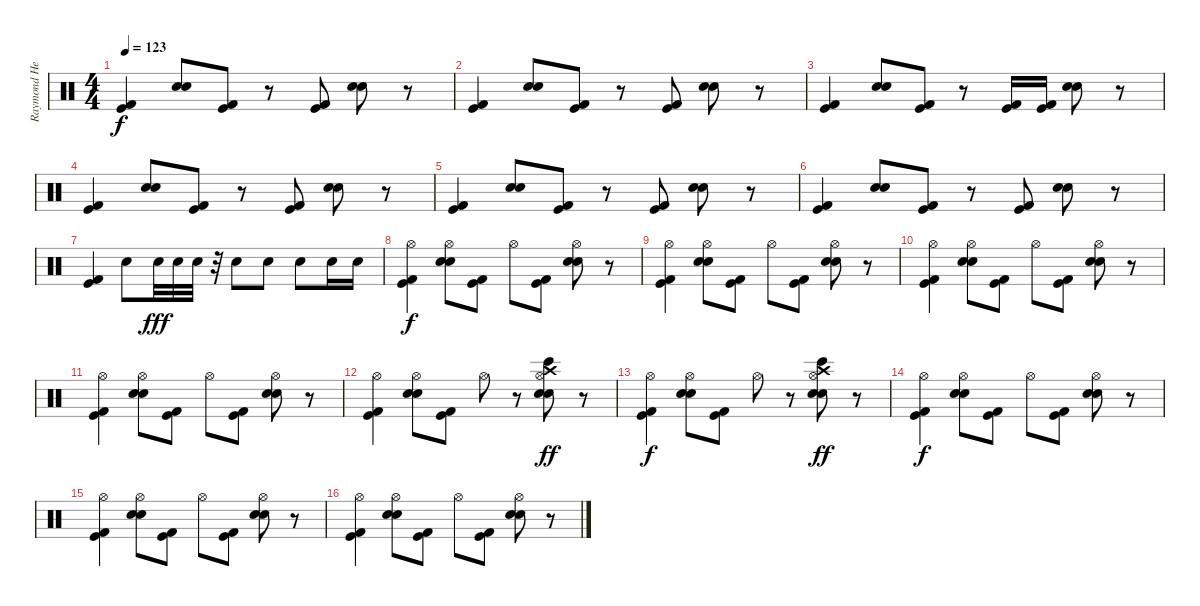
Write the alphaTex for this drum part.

\track ("Raymond Herrera" "Raymond He") {instrument percussion}
\staff {score}
\articulation defaults
\ts (4 4)
\tempo 123
\clef neutral
\ks c
("Kick (hit)" "Kick (hit) 2").4{dy f} ("Electric Snare (hit)" "Electric Snare (hit)").8 ("Kick (hit)" "Kick (hit) 2").8 r.8 ("Kick (hit) 2" "Kick (hit)").8 ("Electric Snare (hit)" "Electric Snare (hit)").8 r.8 |
("Kick (hit)" "Kick (hit) 2").4 ("Electric Snare (hit)" "Electric Snare (hit)").8 ("Kick (hit)" "Kick (hit) 2").8 r.8 ("Kick (hit) 2" "Kick (hit)").8 ("Electric Snare (hit)" "Electric Snare (hit)").8 r.8 |
("Kick (hit)" "Kick (hit) 2").4 ("Electric Snare (hit)" "Electric Snare (hit)").8 ("Kick (hit)" "Kick (hit) 2").8 r.8 ("Kick (hit) 2" "Kick (hit)").16 ("Kick (hit) 2" "Kick (hit)").16 ("Electric Snare (hit)" "Electric Snare (hit)").8 r.8 |
("Kick (hit)" "Kick (hit) 2").4 ("Electric Snare (hit)" "Electric Snare (hit)").8 ("Kick (hit)" "Kick (hit) 2").8 r.8 ("Kick (hit) 2" "Kick (hit)").8 ("Electric Snare (hit)" "Electric Snare (hit)").8 r.8 |
("Kick (hit)" "Kick (hit) 2").4 ("Electric Snare (hit)" "Electric Snare (hit)").8 ("Kick (hit)" "Kick (hit) 2").8 r.8 ("Kick (hit) 2" "Kick (hit)").8 ("Electric Snare (hit)" "Electric Snare (hit)").8 r.8 |
("Kick (hit)" "Kick (hit) 2").4 ("Electric Snare (hit)" "Electric Snare (hit)").8 ("Kick (hit)" "Kick (hit) 2").8 r.8 ("Kick (hit) 2" "Kick (hit)").8 ("Electric Snare (hit)" "Electric Snare (hit)").8 r.8 |
("Kick (hit)" "Kick (hit) 2").4 "Electric Snare (hit)".8 "Electric Snare (hit)".32{dy fff} "Electric Snare (hit)".32 "Electric Snare (hit)".32 r.32 "Electric Snare (hit)".8 "Electric Snare (hit)".8 "Electric Snare (hit)".8 "Electric Snare (hit)".16 "Electric Snare (hit)".16 |
("Hi-Hat (open)" "Kick (hit)" "Kick (hit) 2").4{dy f} ("Hi-Hat (open)" "Electric Snare (hit)" "Electric Snare (hit)").8 ("Kick (hit)" "Kick (hit) 2").8 "Hi-Hat (open)".8 ("Kick (hit) 2" "Kick (hit)").8 ("Hi-Hat (open)" "Electric Snare (hit)" "Electric Snare (hit)").8 r.8 |
("Hi-Hat (open)" "Kick (hit)" "Kick (hit) 2").4 ("Hi-Hat (open)" "Electric Snare (hit)" "Electric Snare (hit)").8 ("Kick (hit)" "Kick (hit) 2").8 "Hi-Hat (open)".8 ("Kick (hit) 2" "Kick (hit)").8 ("Hi-Hat (open)" "Electric Snare (hit)" "Electric Snare (hit)").8 r.8 |
("Hi-Hat (open)" "Kick (hit)" "Kick (hit) 2").4 ("Hi-Hat (open)" "Electric Snare (hit)" "Electric Snare (hit)").8 ("Kick (hit)" "Kick (hit) 2").8 "Hi-Hat (open)".8 ("Kick (hit) 2" "Kick (hit)").8 ("Hi-Hat (open)" "Electric Snare (hit)" "Electric Snare (hit)").8 r.8 |
("Hi-Hat (open)" "Kick (hit)" "Kick (hit) 2").4 ("Hi-Hat (open)" "Electric Snare (hit)" "Electric Snare (hit)").8 ("Kick (hit)" "Kick (hit) 2").8 "Hi-Hat (open)".8 ("Kick (hit) 2" "Kick (hit)").8 ("Hi-Hat (open)" "Electric Snare (hit)" "Electric Snare (hit)").8 r.8 |
("Hi-Hat (open)" "Kick (hit)" "Kick (hit) 2").4 ("Hi-Hat (open)" "Electric Snare (hit)" "Electric Snare (hit)").8 ("Kick (hit)" "Kick (hit) 2").8 "Hi-Hat (open)".8 r.8 ("Hi-Hat (open)" "Crash high (hit)" "Electric Snare (hit)" "Electric Snare (hit)" "Bongo High (hit)").8{dy ff} r.8 |
("Hi-Hat (open)" "Kick (hit)" "Kick (hit) 2").4{dy f} ("Hi-Hat (open)" "Electric Snare (hit)" "Electric Snare (hit)").8 ("Kick (hit)" "Kick (hit) 2").8 "Hi-Hat (open)".8 r.8 ("Hi-Hat (open)" "Crash high (hit)" "Electric Snare (hit)" "Electric Snare (hit)" "Bongo High (hit)").8{dy ff} r.8 |
("Hi-Hat (open)" "Kick (hit)" "Kick (hit) 2").4{dy f} ("Hi-Hat (open)" "Electric Snare (hit)" "Electric Snare (hit)").8 ("Kick (hit)" "Kick (hit) 2").8 "Hi-Hat (open)".8 ("Kick (hit) 2" "Kick (hit)").8 ("Hi-Hat (open)" "Electric Snare (hit)" "Electric Snare (hit)").8 r.8 |
("Hi-Hat (open)" "Kick (hit)" "Kick (hit) 2").4 ("Hi-Hat (open)" "Electric Snare (hit)" "Electric Snare (hit)").8 ("Kick (hit)" "Kick (hit) 2").8 "Hi-Hat (open)".8 ("Kick (hit) 2" "Kick (hit)").8 ("Hi-Hat (open)" "Electric Snare (hit)" "Electric Snare (hit)").8 r.8 |
("Hi-Hat (open)" "Kick (hit)" "Kick (hit) 2").4 ("Hi-Hat (open)" "Electric Snare (hit)" "Electric Snare (hit)").8 ("Kick (hit)" "Kick (hit) 2").8 "Hi-Hat (open)".8 ("Kick (hit) 2" "Kick (hit)").8 ("Hi-Hat (open)" "Electric Snare (hit)" "Electric Snare (hit)").8 r.8
